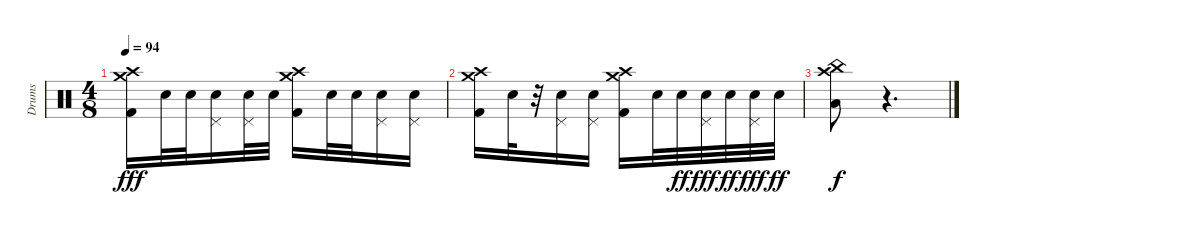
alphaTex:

\track ("Drums" "Drums") {instrument percussion}
\staff {score}
\articulation defaults
\ts (4 8)
\tempo 94
\clef neutral
\ks c
("Crash high (hit)" "Kick (hit) 2" "Crash medium (hit)").16{dy fff} "Electric Snare (hit)".32 "Electric Snare (hit)".32 ("Electric Snare (hit)" "Pedal Hi-Hat (hit)").16 ("Electric Snare (hit)" "Pedal Hi-Hat (hit)").32 "Electric Snare (hit)".32 ("Kick (hit) 2" "Crash high (hit)" "Crash medium (hit)").16 "Electric Snare (hit)".32 "Electric Snare (hit)".32 ("Electric Snare (hit)" "Pedal Hi-Hat (hit)").16 ("Pedal Hi-Hat (hit)" "Electric Snare (hit)").16 |
("Crash high (hit)" "Crash medium (hit)" "Kick (hit) 2").16 "Electric Snare (hit)".32 r.32 ("Electric Snare (hit)" "Pedal Hi-Hat (hit)").16 ("Electric Snare (hit)" "Pedal Hi-Hat (hit)").16 ("Crash high (hit)" "Kick (hit) 2" "Crash medium (hit)").16 "Electric Snare (hit)".32 "Electric Snare (hit)".32{dy ff} ("Electric Snare (hit)" "Pedal Hi-Hat (hit)").32{dy fff} "Electric Snare (hit)".32{dy ff} ("Electric Snare (hit)" "Pedal Hi-Hat (hit)").32{dy fff} "Electric Snare (hit)".32{dy ff} |
("China (hit)" "Low Floor Tom (hit)" "Crash high (hit)").8{dy f} r.4{d}
